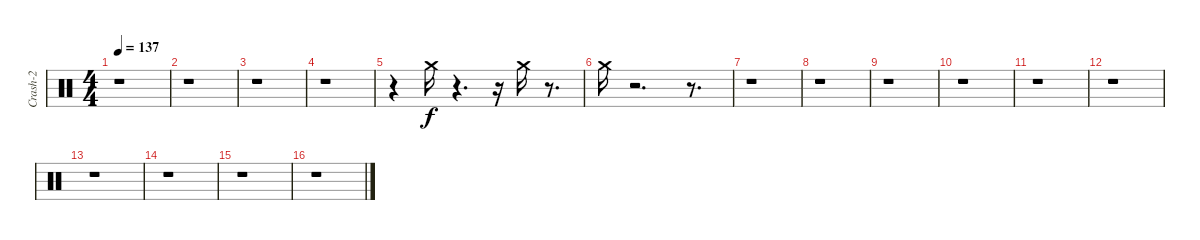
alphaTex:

\track ("Crash-2" "Crash-2") {instrument percussion}
\staff {score}
\articulation defaults
\ts (4 4)
\tempo 137
\clef neutral
\ks c
r.1{dy f} |
r.1 |
r.1 |
r.1 |
r.4 "Crash medium (hit)".16 r.4{d} r.16 "Crash medium (hit)".16 r.8{d} |
"Crash medium (hit)".16 r.2{d} r.8{d} |
r.1 |
r.1 |
r.1 |
r.1 |
r.1 |
r.1 |
r.1 |
r.1 |
r.1 |
r.1
